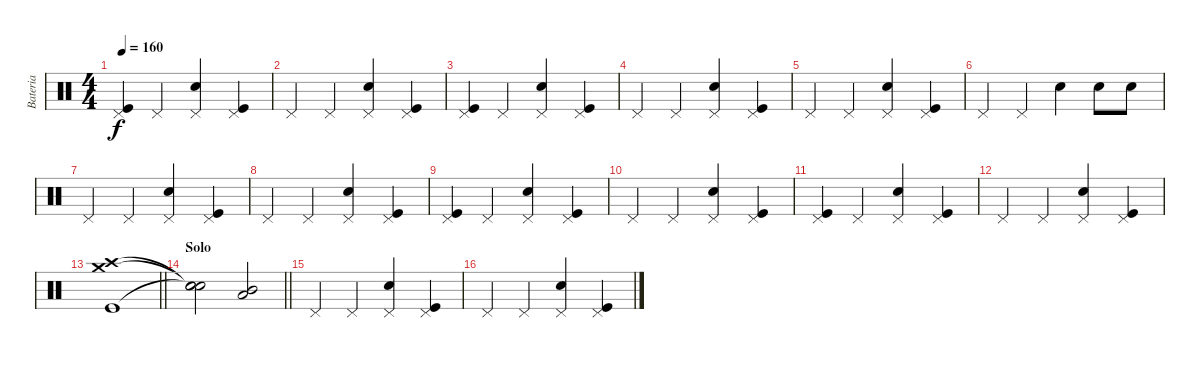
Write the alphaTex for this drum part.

\track ("Bateria" "Bateria") {instrument percussion}
\staff {score}
\articulation defaults
\ts (4 4)
\tempo 160
\clef neutral
\ks c
("Kick (hit)" "Pedal Hi-Hat (hit)").4{dy f} "Pedal Hi-Hat (hit)".4 ("Snare (hit) 2" "Pedal Hi-Hat (hit)").4 ("Kick (hit)" "Pedal Hi-Hat (hit)").4 |
"Pedal Hi-Hat (hit)".4 "Pedal Hi-Hat (hit)".4 ("Snare (hit) 2" "Pedal Hi-Hat (hit)").4 ("Kick (hit)" "Pedal Hi-Hat (hit)").4 |
("Kick (hit)" "Pedal Hi-Hat (hit)").4 "Pedal Hi-Hat (hit)".4 ("Snare (hit) 2" "Pedal Hi-Hat (hit)").4 ("Kick (hit)" "Pedal Hi-Hat (hit)").4 |
"Pedal Hi-Hat (hit)".4 "Pedal Hi-Hat (hit)".4 ("Snare (hit) 2" "Pedal Hi-Hat (hit)").4 ("Kick (hit)" "Pedal Hi-Hat (hit)").4 |
"Pedal Hi-Hat (hit)".4 "Pedal Hi-Hat (hit)".4 ("Snare (hit) 2" "Pedal Hi-Hat (hit)").4 ("Kick (hit)" "Pedal Hi-Hat (hit)").4 |
"Pedal Hi-Hat (hit)".4 "Pedal Hi-Hat (hit)".4 "Snare (hit) 2".4 "Snare (hit) 2".8 "Snare (hit) 2".8 |
"Pedal Hi-Hat (hit)".4 "Pedal Hi-Hat (hit)".4 ("Snare (hit) 2" "Pedal Hi-Hat (hit)").4 ("Kick (hit)" "Pedal Hi-Hat (hit)").4 |
"Pedal Hi-Hat (hit)".4 "Pedal Hi-Hat (hit)".4 ("Snare (hit) 2" "Pedal Hi-Hat (hit)").4 ("Kick (hit)" "Pedal Hi-Hat (hit)").4 |
("Kick (hit)" "Pedal Hi-Hat (hit)").4 "Pedal Hi-Hat (hit)".4 ("Snare (hit) 2" "Pedal Hi-Hat (hit)").4 ("Kick (hit)" "Pedal Hi-Hat (hit)").4 |
"Pedal Hi-Hat (hit)".4 "Pedal Hi-Hat (hit)".4 ("Snare (hit) 2" "Pedal Hi-Hat (hit)").4 ("Kick (hit)" "Pedal Hi-Hat (hit)").4 |
("Kick (hit)" "Pedal Hi-Hat (hit)").4 "Pedal Hi-Hat (hit)".4 ("Snare (hit) 2" "Pedal Hi-Hat (hit)").4 ("Kick (hit)" "Pedal Hi-Hat (hit)").4 |
"Pedal Hi-Hat (hit)".4 "Pedal Hi-Hat (hit)".4 ("Snare (hit) 2" "Pedal Hi-Hat (hit)").4 ("Kick (hit)" "Pedal Hi-Hat (hit)").4 |
\barLineRight lightlight
("Crash medium (hit)" "Kick (hit)" "Crash high (hit)").1 |
\section ("" "Solo")
\barLineRight lightlight
("Snare (hit)"{t} "Snare (hit)"{t} "Snare (hit)"{t}).2 ("Mid Tom (hit)" "Low Tom (hit)").2 |
"Pedal Hi-Hat (hit)".4 "Pedal Hi-Hat (hit)".4 ("Snare (hit) 2" "Pedal Hi-Hat (hit)").4 ("Kick (hit)" "Pedal Hi-Hat (hit)").4 |
"Pedal Hi-Hat (hit)".4 "Pedal Hi-Hat (hit)".4 ("Snare (hit) 2" "Pedal Hi-Hat (hit)").4 ("Kick (hit)" "Pedal Hi-Hat (hit)").4
